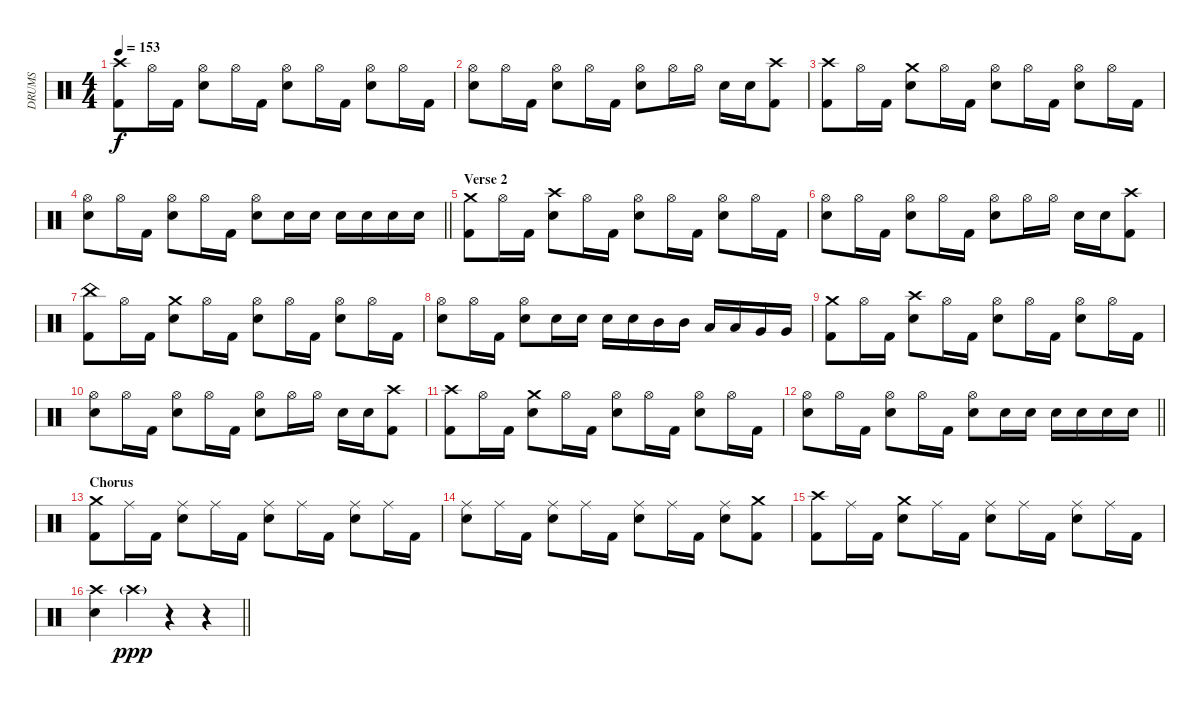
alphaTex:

\track ("DRUMS" "DRUMS") {instrument percussion}
\staff {score}
\articulation defaults
\ts (4 4)
\tempo 153
\clef neutral
\ks c
("Crash high (hit)" "Kick (hit) 2").8{dy f} "Hi-Hat (open)".16 "Kick (hit) 2".16 ("Hi-Hat (open)" "Snare (hit) 2").8 "Hi-Hat (open)".16 "Kick (hit) 2".16 ("Hi-Hat (open)" "Snare (hit) 2").8 "Hi-Hat (open)".16 "Kick (hit) 2".16 ("Hi-Hat (open)" "Snare (hit) 2").8 "Hi-Hat (open)".16 "Kick (hit) 2".16 |
("Hi-Hat (open)" "Snare (hit) 2").8 "Hi-Hat (open)".16 "Kick (hit) 2".16 ("Hi-Hat (open)" "Snare (hit) 2").8 "Hi-Hat (open)".16 "Kick (hit) 2".16 ("Hi-Hat (open)" "Snare (hit) 2").8 "Hi-Hat (open)".16 "Hi-Hat (open)".16 "Snare (hit) 2".16 "Snare (hit) 2".16 ("Crash high (hit)" "Kick (hit) 2").8 |
("Crash high (hit)" "Kick (hit) 2").8 "Hi-Hat (open)".16 "Kick (hit) 2".16 ("Crash medium (hit)" "Snare (hit) 2").8 "Hi-Hat (open)".16 "Kick (hit) 2".16 ("Hi-Hat (open)" "Snare (hit) 2").8 "Hi-Hat (open)".16 "Kick (hit) 2".16 ("Hi-Hat (open)" "Snare (hit) 2").8 "Hi-Hat (open)".16 "Kick (hit) 2".16 |
\barLineRight lightlight
("Hi-Hat (open)" "Snare (hit) 2").8 "Hi-Hat (open)".16 "Kick (hit) 2".16 ("Hi-Hat (open)" "Snare (hit) 2").8 "Hi-Hat (open)".16 "Kick (hit) 2".16 ("Hi-Hat (open)" "Snare (hit) 2").8 "Snare (hit) 2".16 "Snare (hit) 2".16 "Snare (hit) 2".16 "Snare (hit) 2".16 "Snare (hit) 2".16 "Snare (hit) 2".16 |
\section ("" "Verse 2")
("Crash medium (hit)" "Kick (hit) 2").8 "Hi-Hat (open)".16 "Kick (hit) 2".16 ("Crash high (hit)" "Snare (hit) 2").8 "Hi-Hat (open)".16 "Kick (hit) 2".16 ("Hi-Hat (open)" "Snare (hit) 2").8 "Hi-Hat (open)".16 "Kick (hit) 2".16 ("Hi-Hat (open)" "Snare (hit) 2").8 "Hi-Hat (open)".16 "Kick (hit) 2".16 |
("Hi-Hat (open)" "Snare (hit) 2").8 "Hi-Hat (open)".16 "Kick (hit) 2".16 ("Hi-Hat (open)" "Snare (hit) 2").8 "Hi-Hat (open)".16 "Kick (hit) 2".16 ("Hi-Hat (open)" "Snare (hit) 2").8 "Hi-Hat (open)".16 "Hi-Hat (open)".16 "Snare (hit) 2".16 "Snare (hit) 2".16 ("Crash high (hit)" "Kick (hit) 2").8 |
("China (hit)" "Kick (hit) 2").8 "Hi-Hat (open)".16 "Kick (hit) 2".16 ("Crash medium (hit)" "Snare (hit) 2").8 "Hi-Hat (open)".16 "Kick (hit) 2".16 ("Hi-Hat (open)" "Snare (hit) 2").8 "Hi-Hat (open)".16 "Kick (hit) 2".16 ("Hi-Hat (open)" "Snare (hit) 2").8 "Hi-Hat (open)".16 "Kick (hit) 2".16 |
("Hi-Hat (open)" "Snare (hit) 2").8 "Hi-Hat (open)".16 "Kick (hit) 2".16 ("Hi-Hat (open)" "Snare (hit) 2").8 "Snare (hit) 2".16 "Snare (hit) 2".16 "Snare (hit) 2".16 "Snare (hit) 2".16 "Mid Tom (hit)".16 "Mid Tom (hit)".16 "Low Tom (hit)".16 "Low Tom (hit)".16 "Very Low Tom (hit)".16 "Very Low Tom (hit)".16 |
("Crash medium (hit)" "Kick (hit) 2").8 "Hi-Hat (open)".16 "Kick (hit) 2".16 ("Crash high (hit)" "Snare (hit) 2").8 "Hi-Hat (open)".16 "Kick (hit) 2".16 ("Hi-Hat (open)" "Snare (hit) 2").8 "Hi-Hat (open)".16 "Kick (hit) 2".16 ("Hi-Hat (open)" "Snare (hit) 2").8 "Hi-Hat (open)".16 "Kick (hit) 2".16 |
("Hi-Hat (open)" "Snare (hit) 2").8 "Hi-Hat (open)".16 "Kick (hit) 2".16 ("Hi-Hat (open)" "Snare (hit) 2").8 "Hi-Hat (open)".16 "Kick (hit) 2".16 ("Hi-Hat (open)" "Snare (hit) 2").8 "Hi-Hat (open)".16 "Hi-Hat (open)".16 "Snare (hit) 2".16 "Snare (hit) 2".16 ("Crash high (hit)" "Kick (hit) 2").8 |
("Crash high (hit)" "Kick (hit) 2").8 "Hi-Hat (open)".16 "Kick (hit) 2".16 ("Crash medium (hit)" "Snare (hit) 2").8 "Hi-Hat (open)".16 "Kick (hit) 2".16 ("Hi-Hat (open)" "Snare (hit) 2").8 "Hi-Hat (open)".16 "Kick (hit) 2".16 ("Hi-Hat (open)" "Snare (hit) 2").8 "Hi-Hat (open)".16 "Kick (hit) 2".16 |
\barLineRight lightlight
("Hi-Hat (open)" "Snare (hit) 2").8 "Hi-Hat (open)".16 "Kick (hit) 2".16 ("Hi-Hat (open)" "Snare (hit) 2").8 "Hi-Hat (open)".16 "Kick (hit) 2".16 ("Hi-Hat (open)" "Snare (hit) 2").8 "Snare (hit) 2".16 "Snare (hit) 2".16 "Snare (hit) 2".16 "Snare (hit) 2".16 "Snare (hit) 2".16 "Snare (hit) 2".16 |
\section ("" "Chorus")
("Crash medium (hit)" "Kick (hit) 2").8 "Ride (middle)".16 "Kick (hit) 2".16 ("Ride (middle)" "Snare (hit) 2").8 "Ride (middle)".16 "Kick (hit) 2".16 ("Ride (middle)" "Snare (hit) 2").8 "Ride (middle)".16 "Kick (hit) 2".16 ("Ride (middle)" "Snare (hit) 2").8 "Ride (middle)".16 "Kick (hit) 2".16 |
("Ride (middle)" "Snare (hit) 2").8 "Ride (middle)".16 "Kick (hit) 2".16 ("Ride (middle)" "Snare (hit) 2").8 "Ride (middle)".16 "Kick (hit) 2".16 ("Ride (middle)" "Snare (hit) 2").8 "Ride (middle)".16 "Kick (hit) 2".16 ("Ride (middle)" "Snare (hit) 2").8 ("Crash medium (hit)" "Kick (hit) 2").8 |
("Crash high (hit)" "Kick (hit) 2").8 "Ride (middle)".16 "Kick (hit) 2".16 ("Crash medium (hit)" "Snare (hit) 2").8 "Ride (middle)".16 "Kick (hit) 2".16 ("Ride (middle)" "Snare (hit) 2").8 "Ride (middle)".16 "Kick (hit) 2".16 ("Ride (middle)" "Snare (hit) 2").8 "Ride (middle)".16 "Kick (hit) 2".16 |
\barLineRight lightlight
("Crash high (hit)" "Snare (hit) 2").4 "Crash high (hit)"{g}.4{dy ppp} r.4 r.4
